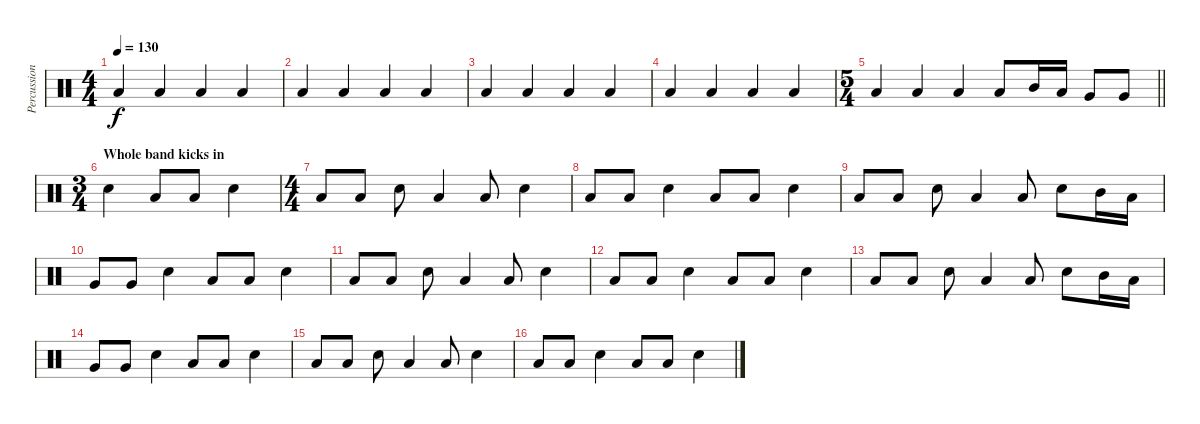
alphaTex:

\track ("Percussion 1" "Percussion") {instrument percussion}
\staff {score}
\articulation defaults
\ts (4 4)
\tempo 130
\clef neutral
\ks c "Low Floor Tom (hit)".4{dy f} "Low Floor Tom (hit)".4 "Low Floor Tom (hit)".4 "Low Floor Tom (hit)".4
|
"Low Floor Tom (hit)".4 "Low Floor Tom (hit)".4 "Low Floor Tom (hit)".4 "Low Floor Tom (hit)".4 |
"Low Floor Tom (hit)".4 "Low Floor Tom (hit)".4 "Low Floor Tom (hit)".4 "Low Floor Tom (hit)".4 |
"Low Floor Tom (hit)".4 "Low Floor Tom (hit)".4 "Low Floor Tom (hit)".4 "Low Floor Tom (hit)".4 |
\ts (5 4)
\barLineRight lightlight "Low Floor Tom (hit)".4 "Low Floor Tom (hit)".4 "Low Floor Tom (hit)".4 "Low Floor Tom (hit)".8 "Mid Tom (hit)".16 "Low Tom (hit)".16 "Very Low Tom (hit)".8 "Very Low Tom (hit)".8
|
\ts (3 4)
\section ("" "Whole band kicks in")
"Electric Snare (hit)".4 "Low Floor Tom (hit)".8 "Low Floor Tom (hit)".8 "Electric Snare (hit)".4 |
\ts (4 4)
"Low Floor Tom (hit)".8 "Low Floor Tom (hit)".8 "Electric Snare (hit)".8 "Low Floor Tom (hit)".4 "Low Floor Tom (hit)".8 "Electric Snare (hit)".4 |
"Low Floor Tom (hit)".8 "Low Floor Tom (hit)".8 "Electric Snare (hit)".4 "Low Floor Tom (hit)".8 "Low Floor Tom (hit)".8 "Electric Snare (hit)".4 |
"Low Floor Tom (hit)".8 "Low Floor Tom (hit)".8 "Electric Snare (hit)".8 "Low Floor Tom (hit)".4 "Low Floor Tom (hit)".8 "Electric Snare (hit)".8 "Mid Tom (hit)".16 "Low Tom (hit)".16 |
"Very Low Tom (hit)".8 "Very Low Tom (hit)".8 "Electric Snare (hit)".4 "Low Floor Tom (hit)".8 "Low Floor Tom (hit)".8 "Electric Snare (hit)".4 |
"Low Floor Tom (hit)".8 "Low Floor Tom (hit)".8 "Electric Snare (hit)".8 "Low Floor Tom (hit)".4 "Low Floor Tom (hit)".8 "Electric Snare (hit)".4 |
"Low Floor Tom (hit)".8 "Low Floor Tom (hit)".8 "Electric Snare (hit)".4 "Low Floor Tom (hit)".8 "Low Floor Tom (hit)".8 "Electric Snare (hit)".4 |
"Low Floor Tom (hit)".8 "Low Floor Tom (hit)".8 "Electric Snare (hit)".8 "Low Floor Tom (hit)".4 "Low Floor Tom (hit)".8 "Electric Snare (hit)".8 "Mid Tom (hit)".16 "Low Tom (hit)".16 |
"Very Low Tom (hit)".8 "Very Low Tom (hit)".8 "Electric Snare (hit)".4 "Low Floor Tom (hit)".8 "Low Floor Tom (hit)".8 "Electric Snare (hit)".4 |
"Low Floor Tom (hit)".8 "Low Floor Tom (hit)".8 "Electric Snare (hit)".8 "Low Floor Tom (hit)".4 "Low Floor Tom (hit)".8 "Electric Snare (hit)".4 |
"Low Floor Tom (hit)".8 "Low Floor Tom (hit)".8 "Electric Snare (hit)".4 "Low Floor Tom (hit)".8 "Low Floor Tom (hit)".8 "Electric Snare (hit)".4
